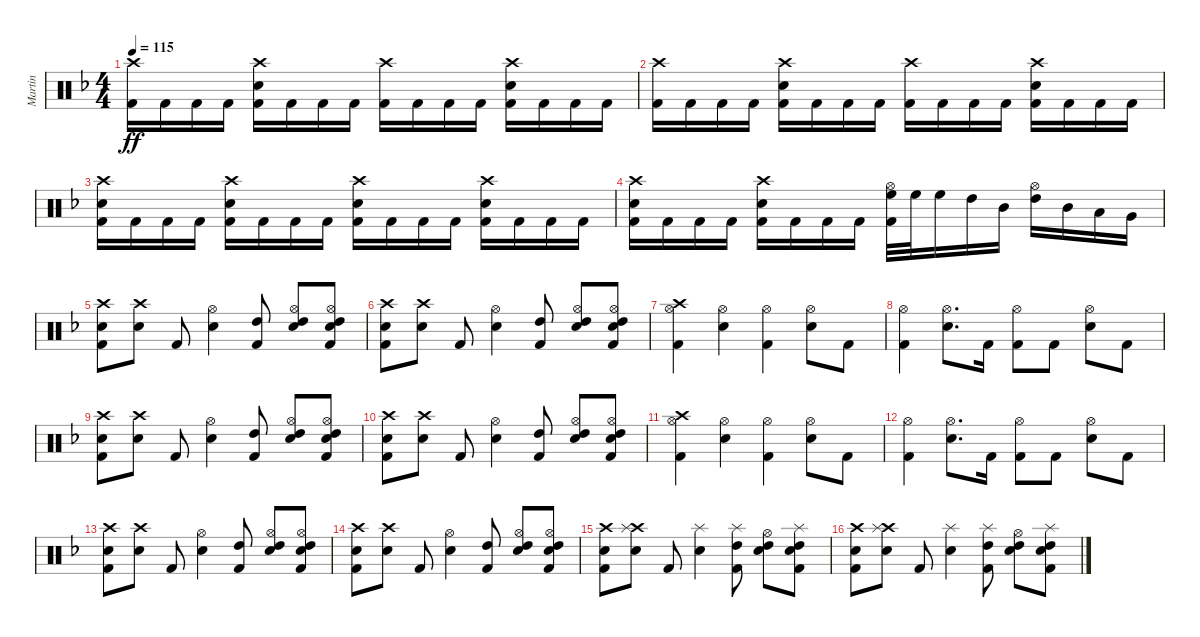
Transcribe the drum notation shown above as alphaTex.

\track ("Martin" "Martin") {instrument percussion}
\staff {score}
\articulation defaults
\ts (4 4)
\tempo 115
\clef neutral
\ks dminor
("Crash high (hit)" "Kick (hit) 2").16{dy ff} "Kick (hit) 2".16 "Kick (hit) 2".16 "Kick (hit) 2".16 ("Crash high (hit)" "Electric Snare (hit)" "Kick (hit) 2").16 "Kick (hit) 2".16 "Kick (hit) 2".16 "Kick (hit) 2".16 ("Crash high (hit)" "Kick (hit) 2").16 "Kick (hit) 2".16 "Kick (hit) 2".16 "Kick (hit) 2".16 ("Crash high (hit)" "Electric Snare (hit)" "Kick (hit) 2").16 "Kick (hit) 2".16 "Kick (hit) 2".16 "Kick (hit) 2".16 |
("Crash high (hit)" "Kick (hit) 2").16 "Kick (hit) 2".16 "Kick (hit) 2".16 "Kick (hit) 2".16 ("Crash high (hit)" "Electric Snare (hit)" "Kick (hit) 2").16 "Kick (hit) 2".16 "Kick (hit) 2".16 "Kick (hit) 2".16 ("Crash high (hit)" "Kick (hit) 2").16 "Kick (hit) 2".16 "Kick (hit) 2".16 "Kick (hit) 2".16 ("Crash high (hit)" "Electric Snare (hit)" "Kick (hit) 2").16 "Kick (hit) 2".16 "Kick (hit) 2".16 "Kick (hit) 2".16 |
("Crash high (hit)" "Electric Snare (hit)" "Kick (hit) 2").16 "Kick (hit) 2".16 "Kick (hit) 2".16 "Kick (hit) 2".16 ("Crash high (hit)" "Electric Snare (hit)" "Kick (hit) 2").16 "Kick (hit) 2".16 "Kick (hit) 2".16 "Kick (hit) 2".16 ("Crash high (hit)" "Electric Snare (hit)" "Kick (hit) 2").16 "Kick (hit) 2".16 "Kick (hit) 2".16 "Kick (hit) 2".16 ("Crash high (hit)" "Electric Snare (hit)" "Kick (hit) 2").16 "Kick (hit) 2".16 "Kick (hit) 2".16 "Kick (hit) 2".16 |
("Crash high (hit)" "Electric Snare (hit)" "Kick (hit) 2").16 "Kick (hit) 2".16 "Kick (hit) 2".16 "Kick (hit) 2".16 ("Crash high (hit)" "Electric Snare (hit)" "Kick (hit) 2").16 "Kick (hit) 2".16 "Kick (hit) 2".16 "Kick (hit) 2".16 ("Hi-Hat (open)" "High Floor Tom (hit)" "Kick (hit) 2").32 "High Floor Tom (hit)".32 "High Floor Tom (hit)".16 "High Tom (hit)".16 "Mid Tom (hit)".16 ("Hi-Hat (open)" "High Tom (hit)").16 "Mid Tom (hit)".16 "Low Tom (hit)".16 "Very Low Tom (hit)".16 |
("Crash high (hit)" "Electric Snare (hit)" "Kick (hit) 2").8 ("Crash high (hit)" "Electric Snare (hit)").8 "Kick (hit) 2".8 ("Hi-Hat (open)" "Electric Snare (hit)").4 ("High Tom (hit)" "Kick (hit) 2").8 ("Hi-Hat (open)" "Electric Snare (hit)" "High Tom (hit)").8 ("Hi-Hat (open)" "Electric Snare (hit)" "High Tom (hit)" "Kick (hit) 2").8 |
("Crash high (hit)" "Electric Snare (hit)" "Kick (hit) 2").8 ("Crash high (hit)" "Electric Snare (hit)").8 "Kick (hit) 2".8 ("Hi-Hat (open)" "Electric Snare (hit)").4 ("High Tom (hit)" "Kick (hit) 2").8 ("Hi-Hat (open)" "Electric Snare (hit)" "High Tom (hit)").8 ("Hi-Hat (open)" "Electric Snare (hit)" "High Tom (hit)" "Kick (hit) 2").8 |
("Crash high (hit)" "Hi-Hat (open)" "Kick (hit) 2").4 ("Hi-Hat (open)" "Electric Snare (hit)").4 ("Hi-Hat (open)" "Kick (hit) 2").4 ("Hi-Hat (open)" "Electric Snare (hit)").8 "Kick (hit) 2".8 |
("Hi-Hat (open)" "Kick (hit) 2").4 ("Hi-Hat (open)" "Electric Snare (hit)").8{d} "Kick (hit) 2".16 ("Hi-Hat (open)" "Kick (hit) 2").8 "Kick (hit) 2".8 ("Hi-Hat (open)" "Electric Snare (hit)").8 "Kick (hit) 2".8 |
("Crash high (hit)" "Electric Snare (hit)" "Kick (hit) 2").8 ("Crash high (hit)" "Electric Snare (hit)").8 "Kick (hit) 2".8 ("Hi-Hat (open)" "Electric Snare (hit)").4 ("High Tom (hit)" "Kick (hit) 2").8 ("Hi-Hat (open)" "Electric Snare (hit)" "High Tom (hit)").8 ("Hi-Hat (open)" "Electric Snare (hit)" "High Tom (hit)" "Kick (hit) 2").8 |
("Crash high (hit)" "Electric Snare (hit)" "Kick (hit) 2").8 ("Crash high (hit)" "Electric Snare (hit)").8 "Kick (hit) 2".8 ("Hi-Hat (open)" "Electric Snare (hit)").4 ("High Tom (hit)" "Kick (hit) 2").8 ("Hi-Hat (open)" "Electric Snare (hit)" "High Tom (hit)").8 ("Hi-Hat (open)" "Electric Snare (hit)" "High Tom (hit)" "Kick (hit) 2").8 |
("Crash high (hit)" "Hi-Hat (open)" "Kick (hit) 2").4 ("Hi-Hat (open)" "Electric Snare (hit)").4 ("Hi-Hat (open)" "Kick (hit) 2").4 ("Hi-Hat (open)" "Electric Snare (hit)").8 "Kick (hit) 2".8 |
("Hi-Hat (open)" "Kick (hit) 2").4 ("Hi-Hat (open)" "Electric Snare (hit)").8{d} "Kick (hit) 2".16 ("Hi-Hat (open)" "Kick (hit) 2").8 "Kick (hit) 2".8 ("Hi-Hat (open)" "Electric Snare (hit)").8 "Kick (hit) 2".8 |
("Crash high (hit)" "Electric Snare (hit)" "Kick (hit) 2").8 ("Crash high (hit)" "Electric Snare (hit)").8 "Kick (hit) 2".8 ("Hi-Hat (open)" "Electric Snare (hit)").4 ("High Tom (hit)" "Kick (hit) 2").8 ("Hi-Hat (open)" "Electric Snare (hit)" "High Tom (hit)").8 ("Hi-Hat (open)" "Electric Snare (hit)" "High Tom (hit)" "Kick (hit) 2").8 |
("Crash high (hit)" "Electric Snare (hit)" "Kick (hit) 2").8 ("Crash high (hit)" "Electric Snare (hit)").8 "Kick (hit) 2".8 ("Hi-Hat (open)" "Electric Snare (hit)").4 ("High Tom (hit)" "Kick (hit) 2").8 ("Hi-Hat (open)" "Electric Snare (hit)" "High Tom (hit)").8 ("Hi-Hat (open)" "Electric Snare (hit)" "High Tom (hit)" "Kick (hit) 2").8 |
("Crash high (hit)" "Electric Snare (hit)" "Kick (hit) 2").8 ("Crash high (hit)" "Splash (hit)" "Electric Snare (hit)").8 "Kick (hit) 2".8 ("Splash (hit)" "Electric Snare (hit)").4 ("Splash (hit)" "High Tom (hit)" "Kick (hit) 2").8 ("Hi-Hat (open)" "Electric Snare (hit)" "High Tom (hit)").8 ("Splash (hit)" "Electric Snare (hit)" "High Tom (hit)" "Kick (hit) 2").8 |
("Crash high (hit)" "Electric Snare (hit)" "Kick (hit) 2").8 ("Crash high (hit)" "Splash (hit)" "Electric Snare (hit)").8 "Kick (hit) 2".8 ("Splash (hit)" "Electric Snare (hit)").4 ("Splash (hit)" "High Tom (hit)" "Kick (hit) 2").8 ("Hi-Hat (open)" "Electric Snare (hit)" "High Tom (hit)").8 ("Splash (hit)" "Electric Snare (hit)" "High Tom (hit)" "Kick (hit) 2").8
